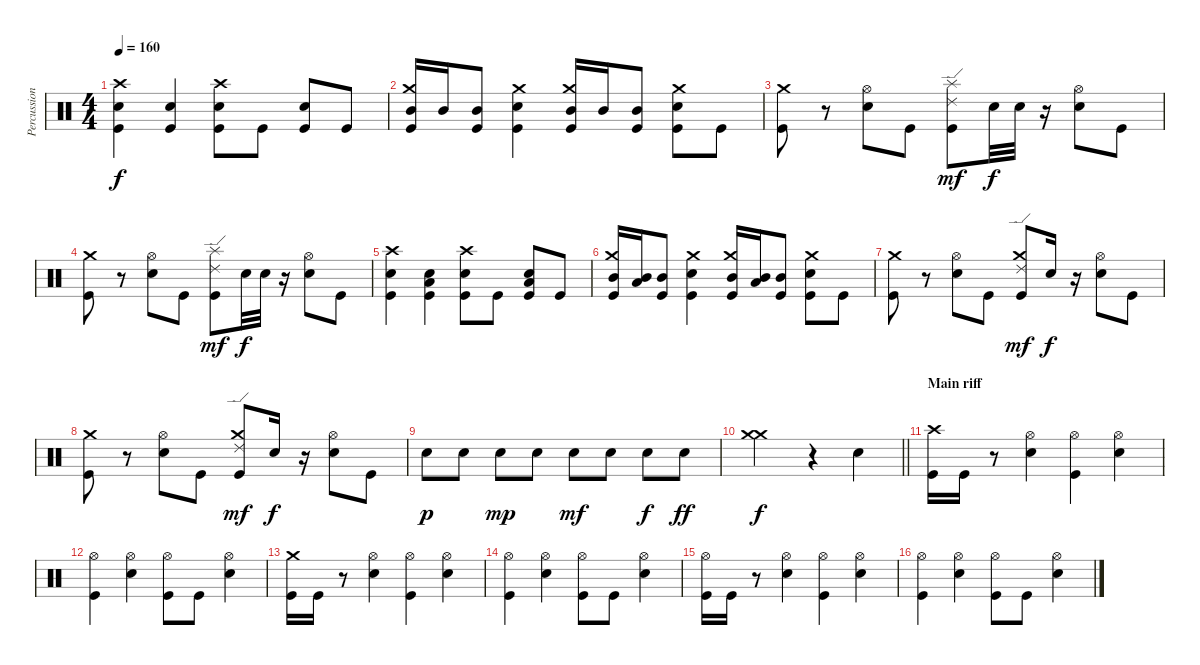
\track ("Percussion" "Percussion") {instrument percussion}
\staff {score}
\articulation defaults
\ts (4 4)
\tempo 160
\clef neutral
\ks c
("Crash high (hit)" "Snare (hit) 2" "Kick (hit)").4{dy f} ("Snare (hit) 2" "Kick (hit)").4 ("Crash high (hit)" "Snare (hit) 2" "Kick (hit)").8 "Kick (hit)".8 ("Snare (hit) 2" "Kick (hit)").8 "Kick (hit)".8 |
("Crash medium (hit)" "Mid Tom (hit)" "Kick (hit)").16 "Mid Tom (hit)".16 ("Mid Tom (hit)" "Kick (hit)").8 ("Crash medium (hit)" "Snare (hit) 2" "Kick (hit)").4 ("Crash medium (hit)" "Mid Tom (hit)" "Kick (hit)").16 "Mid Tom (hit)".16 ("Mid Tom (hit)" "Kick (hit)").8 ("Crash medium (hit)" "Snare (hit) 2" "Kick (hit)").8 "Kick (hit)".8 |
("Crash medium (hit)" "Kick (hit)").8 r.8 ("Hi-Hat (open)" "Snare (hit) 2").8 "Kick (hit)".8 ("Ride (edge) 2" "Splash (hit)" "Kick (hit)").8{dy mf} "Snare (hit) 2".32{dy f} "Snare (hit) 2".32 r.16 ("Hi-Hat (open)" "Snare (hit) 2").8 "Kick (hit)".8 |
("Crash medium (hit)" "Kick (hit)").8 r.8 ("Hi-Hat (open)" "Snare (hit) 2").8 "Kick (hit)".8 ("Ride (edge) 2" "Splash (hit)" "Kick (hit)").8{dy mf} "Snare (hit) 2".32{dy f} "Snare (hit) 2".32 r.16 ("Hi-Hat (open)" "Snare (hit) 2").8 "Kick (hit)".8 |
("Crash high (hit)" "Snare (hit) 2" "Kick (hit)").4 ("Low Tom (hit)" "Snare (hit) 2" "Kick (hit)").4 ("Crash high (hit)" "Snare (hit) 2" "Kick (hit)").8 "Kick (hit)".8 ("Low Tom (hit)" "Snare (hit) 2" "Kick (hit)").8 "Kick (hit)".8 |
("Crash medium (hit)" "Mid Tom (hit)" "Kick (hit)").16 ("Low Tom (hit)" "Mid Tom (hit)").16 ("Mid Tom (hit)" "Kick (hit)").8 ("Crash medium (hit)" "Snare (hit) 2" "Kick (hit)").4 ("Crash medium (hit)" "Mid Tom (hit)" "Kick (hit)").16 ("Low Tom (hit)" "Mid Tom (hit)").16 ("Mid Tom (hit)" "Kick (hit)").8 ("Crash medium (hit)" "Snare (hit) 2" "Kick (hit)").8 "Kick (hit)".8 |
("Crash medium (hit)" "Kick (hit)").8 r.8 ("Hi-Hat (open)" "Snare (hit) 2").8 "Kick (hit)".8 ("Crash medium (hit)" "Ride (edge) 2" "Kick (hit)").8{dy mf} "Snare (hit) 2".16{dy f} r.16 ("Hi-Hat (open)" "Snare (hit) 2").8 "Kick (hit)".8 |
("Crash medium (hit)" "Kick (hit)").8 r.8 ("Hi-Hat (open)" "Snare (hit) 2").8 "Kick (hit)".8 ("Crash medium (hit)" "Ride (edge) 2" "Kick (hit)").8{dy mf} "Snare (hit) 2".16{dy f} r.16 ("Hi-Hat (open)" "Snare (hit) 2").8 "Kick (hit)".8 |
"Snare (hit) 2".8{dy p} "Snare (hit) 2".8 "Snare (hit) 2".8{dy mp} "Snare (hit) 2".8 "Snare (hit) 2".8{dy mf} "Snare (hit) 2".8 "Snare (hit) 2".8{dy f} "Snare (hit) 2".8{dy ff} |
\barLineRight lightlight
("Crash medium (hit)" "Crash medium (hit)").2{dy f} r.4 "Snare (hit) 2".4 |
\section ("" "Main riff")
("Crash high (hit)" "Kick (hit)").16 "Kick (hit)".16 r.8 ("Hi-Hat (open)" "Snare (hit) 2").4 ("Hi-Hat (open)" "Kick (hit)").4 ("Hi-Hat (open)" "Snare (hit) 2").4 |
("Hi-Hat (open)" "Kick (hit)").4 ("Hi-Hat (open)" "Snare (hit) 2").4 ("Hi-Hat (open)" "Kick (hit)").8 "Kick (hit)".8 ("Hi-Hat (open)" "Snare (hit) 2").4 |
("Crash medium (hit)" "Kick (hit)").16 "Kick (hit)".16 r.8 ("Hi-Hat (open)" "Snare (hit) 2").4 ("Hi-Hat (open)" "Kick (hit)").4 ("Hi-Hat (open)" "Snare (hit) 2").4 |
("Hi-Hat (open)" "Kick (hit)").4 ("Hi-Hat (open)" "Snare (hit) 2").4 ("Hi-Hat (open)" "Kick (hit)").8 "Kick (hit)".8 ("Hi-Hat (open)" "Snare (hit) 2").4 |
("Hi-Hat (open)" "Kick (hit)").16 "Kick (hit)".16 r.8 ("Hi-Hat (open)" "Snare (hit) 2").4 ("Hi-Hat (open)" "Kick (hit)").4 ("Hi-Hat (open)" "Snare (hit) 2").4 |
("Hi-Hat (open)" "Kick (hit)").4 ("Hi-Hat (open)" "Snare (hit) 2").4 ("Hi-Hat (open)" "Kick (hit)").8 "Kick (hit)".8 ("Hi-Hat (open)" "Snare (hit) 2").4
